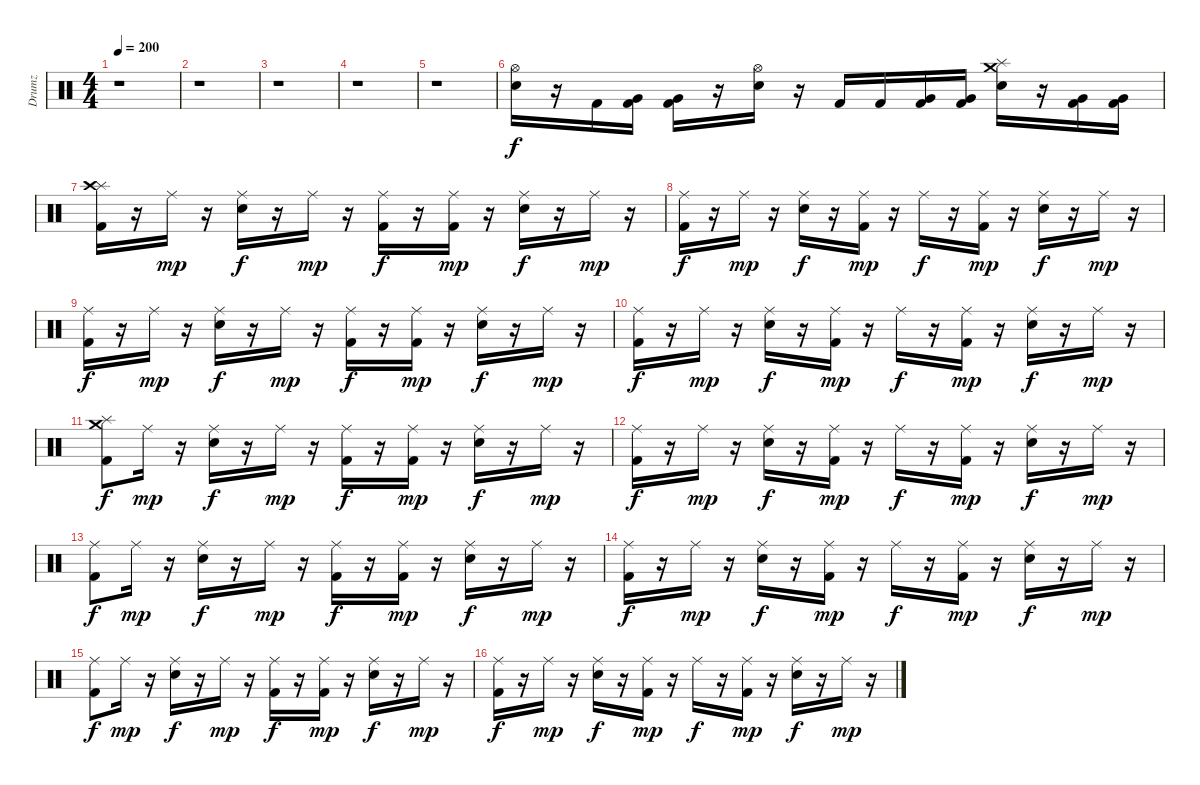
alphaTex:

\track ("Drumz" "Drumz") {instrument percussion}
\staff {score}
\articulation defaults
\ts (4 4)
\tempo 200
\clef neutral
\ks c
r.1{dy f} |
r.1 |
r.1 |
r.1 |
r.1 |
("Hi-Hat (open)" "Snare (hit) 2").16 r.16 "Kick (hit) 2".16 ("Kick (hit) 2" "Very Low Tom (hit)").16 ("Kick (hit) 2" "Very Low Tom (hit)").16 r.16 ("Hi-Hat (open)" "Snare (hit) 2").16 r.16 "Kick (hit) 2".16 "Kick (hit) 2".16 ("Kick (hit) 2" "Very Low Tom (hit)").16 ("Kick (hit) 2" "Very Low Tom (hit)").16 ("Splash (hit)" "Snare (hit) 2" "Crash medium (hit)").16 r.16 ("Kick (hit) 2" "Very Low Tom (hit)").16 ("Kick (hit) 2" "Very Low Tom (hit)").16 |
("Splash (hit)" "Crash high (hit)" "Kick (hit) 2").16 r.16 "Ride (middle)".16{dy mp} r.16 ("Snare (hit) 2" "Ride (middle)").16{dy f} r.16 "Ride (middle)".16{dy mp} r.16 ("Kick (hit) 2" "Ride (middle)").16{dy f} r.16 ("Kick (hit) 2" "Ride (middle)").16{dy mp} r.16 ("Snare (hit) 2" "Ride (middle)").16{dy f} r.16 "Ride (middle)".16{dy mp} r.16 |
("Kick (hit) 2" "Ride (middle)").16{dy f} r.16 "Ride (middle)".16{dy mp} r.16 ("Snare (hit) 2" "Ride (middle)").16{dy f} r.16 ("Kick (hit) 2" "Ride (middle)").16{dy mp} r.16 "Ride (middle)".16{dy f} r.16 ("Kick (hit) 2" "Ride (middle)").16{dy mp} r.16 ("Snare (hit) 2" "Ride (middle)").16{dy f} r.16 "Ride (middle)".16{dy mp} r.16 |
("Ride (middle)" "Kick (hit) 2").16{dy f} r.16 "Ride (middle)".16{dy mp} r.16 ("Snare (hit) 2" "Ride (middle)").16{dy f} r.16 "Ride (middle)".16{dy mp} r.16 ("Kick (hit) 2" "Ride (middle)").16{dy f} r.16 ("Kick (hit) 2" "Ride (middle)").16{dy mp} r.16 ("Snare (hit) 2" "Ride (middle)").16{dy f} r.16 "Ride (middle)".16{dy mp} r.16 |
("Kick (hit) 2" "Ride (middle)").16{dy f} r.16 "Ride (middle)".16{dy mp} r.16 ("Snare (hit) 2" "Ride (middle)").16{dy f} r.16 ("Kick (hit) 2" "Ride (middle)").16{dy mp} r.16 "Ride (middle)".16{dy f} r.16 ("Kick (hit) 2" "Ride (middle)").16{dy mp} r.16 ("Snare (hit) 2" "Ride (middle)").16{dy f} r.16 "Ride (middle)".16{dy mp} r.16 |
("Kick (hit) 2" "Crash medium (hit)" "Splash (hit)").8{dy f} "Ride (middle)".16{dy mp} r.16 ("Snare (hit) 2" "Ride (middle)").16{dy f} r.16 "Ride (middle)".16{dy mp} r.16 ("Kick (hit) 2" "Ride (middle)").16{dy f} r.16 ("Kick (hit) 2" "Ride (middle)").16{dy mp} r.16 ("Snare (hit) 2" "Ride (middle)").16{dy f} r.16 "Ride (middle)".16{dy mp} r.16 |
("Kick (hit) 2" "Ride (middle)").16{dy f} r.16 "Ride (middle)".16{dy mp} r.16 ("Snare (hit) 2" "Ride (middle)").16{dy f} r.16 ("Kick (hit) 2" "Ride (middle)").16{dy mp} r.16 "Ride (middle)".16{dy f} r.16 ("Kick (hit) 2" "Ride (middle)").16{dy mp} r.16 ("Snare (hit) 2" "Ride (middle)").16{dy f} r.16 "Ride (middle)".16{dy mp} r.16 |
("Kick (hit) 2" "Ride (middle)").8{dy f} "Ride (middle)".16{dy mp} r.16 ("Snare (hit) 2" "Ride (middle)").16{dy f} r.16 "Ride (middle)".16{dy mp} r.16 ("Kick (hit) 2" "Ride (middle)").16{dy f} r.16 ("Kick (hit) 2" "Ride (middle)").16{dy mp} r.16 ("Snare (hit) 2" "Ride (middle)").16{dy f} r.16 "Ride (middle)".16{dy mp} r.16 |
("Kick (hit) 2" "Ride (middle)").16{dy f} r.16 "Ride (middle)".16{dy mp} r.16 ("Snare (hit) 2" "Ride (middle)").16{dy f} r.16 ("Kick (hit) 2" "Ride (middle)").16{dy mp} r.16 "Ride (middle)".16{dy f} r.16 ("Kick (hit) 2" "Ride (middle)").16{dy mp} r.16 ("Snare (hit) 2" "Ride (middle)").16{dy f} r.16 "Ride (middle)".16{dy mp} r.16 |
("Kick (hit) 2" "Ride (middle)").8{dy f} "Ride (middle)".16{dy mp} r.16 ("Snare (hit) 2" "Ride (middle)").16{dy f} r.16 "Ride (middle)".16{dy mp} r.16 ("Kick (hit) 2" "Ride (middle)").16{dy f} r.16 ("Kick (hit) 2" "Ride (middle)").16{dy mp} r.16 ("Snare (hit) 2" "Ride (middle)").16{dy f} r.16 "Ride (middle)".16{dy mp} r.16 |
("Kick (hit) 2" "Ride (middle)").16{dy f} r.16 "Ride (middle)".16{dy mp} r.16 ("Snare (hit) 2" "Ride (middle)").16{dy f} r.16 ("Kick (hit) 2" "Ride (middle)").16{dy mp} r.16 "Ride (middle)".16{dy f} r.16 ("Kick (hit) 2" "Ride (middle)").16{dy mp} r.16 ("Snare (hit) 2" "Ride (middle)").16{dy f} r.16 "Ride (middle)".16{dy mp} r.16
